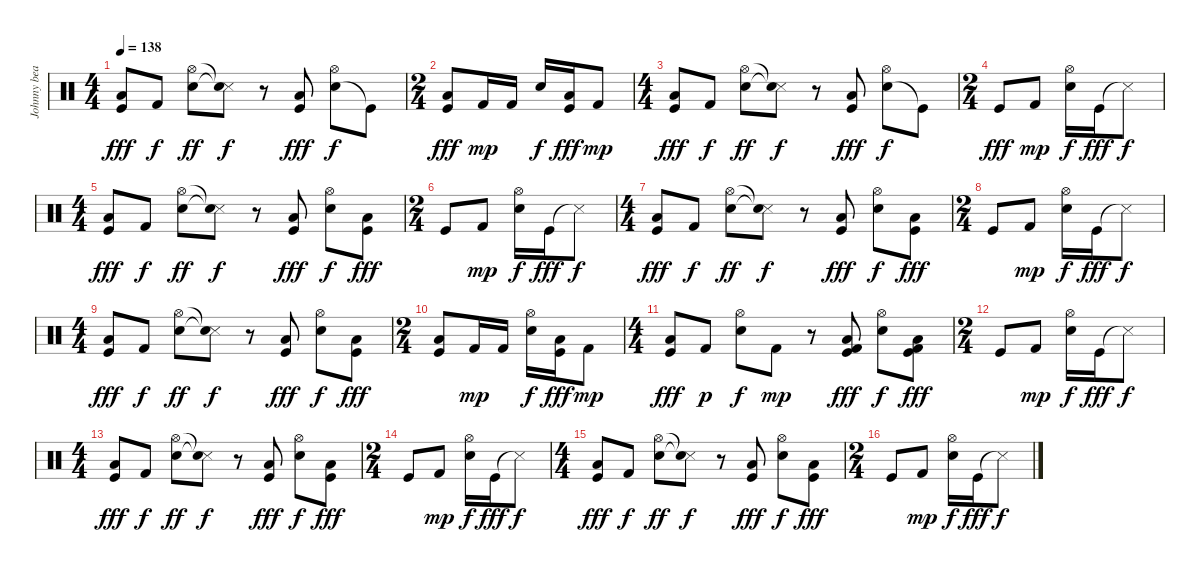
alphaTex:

\track ("Johnny beat" "Johnny bea") {instrument percussion}
\staff {score}
\articulation defaults
\ts (4 4)
\tempo 138
\clef neutral
\ks c
("Low Tom (hit)" "Kick (hit)").8{dy fff} "Kick (hit) 2".8{dy f} ("Electric Snare (hit)" "Hi-Hat (open)").8{dy ff} ("Snare (side stick) 3"{t} "Snare (hit)"{t}).8{dy f} r.8 ("Low Tom (hit)" "Kick (hit)").8{dy fff} ("Electric Snare (hit)" "Hi-Hat (open)").8{dy f} "Kick (hit)"{t}.8 |
\ts (2 4)
("Low Tom (hit)" "Kick (hit)").8{dy fff} "Kick (hit) 2".16{dy mp} "Kick (hit) 2".16 "Electric Snare (hit)".16{dy f} ("Low Tom (hit)" "Kick (hit)").16{dy fff} "Kick (hit) 2".8{dy mp} |
\ts (4 4)
("Low Tom (hit)" "Kick (hit)").8{dy fff} "Kick (hit) 2".8{dy f} ("Electric Snare (hit)" "Hi-Hat (open)").8{dy ff} ("Snare (side stick) 3"{t} "Snare (hit)"{t}).8{dy f} r.8 ("Low Tom (hit)" "Kick (hit)").8{dy fff} ("Electric Snare (hit)" "Hi-Hat (open)").8{dy f} "Kick (hit)"{t}.8 |
\ts (2 4)
"Kick (hit)".8{dy fff} "Kick (hit) 2".8{dy mp} ("Electric Snare (hit)" "Hi-Hat (open)").16{dy f} "Kick (hit)".16{dy fff} "Snare (side stick) 3"{t}.8{dy f} |
\ts (4 4)
("Low Tom (hit)" "Kick (hit)").8{dy fff} "Kick (hit) 2".8{dy f} ("Electric Snare (hit)" "Hi-Hat (open)").8{dy ff} ("Snare (side stick) 3"{t} "Snare (hit)"{t}).8{dy f} r.8 ("Low Tom (hit)" "Kick (hit)").8{dy fff} ("Electric Snare (hit)" "Hi-Hat (open)").8{dy f} ("Low Tom (hit)" "Kick (hit)").8{dy fff} |
\ts (2 4)
"Kick (hit)".8 "Kick (hit) 2".8{dy mp} ("Electric Snare (hit)" "Hi-Hat (open)").16{dy f} "Kick (hit)".16{dy fff} "Snare (side stick) 3"{t}.8{dy f} |
\ts (4 4)
("Low Tom (hit)" "Kick (hit)").8{dy fff} "Kick (hit) 2".8{dy f} ("Electric Snare (hit)" "Hi-Hat (open)").8{dy ff} ("Snare (side stick) 3"{t} "Snare (hit)"{t}).8{dy f} r.8 ("Low Tom (hit)" "Kick (hit)").8{dy fff} ("Electric Snare (hit)" "Hi-Hat (open)").8{dy f} ("Low Tom (hit)" "Kick (hit)").8{dy fff} |
\ts (2 4)
"Kick (hit)".8 "Kick (hit) 2".8{dy mp} ("Electric Snare (hit)" "Hi-Hat (open)").16{dy f} "Kick (hit)".16{dy fff} "Snare (side stick) 3"{t}.8{dy f} |
\ts (4 4)
("Low Tom (hit)" "Kick (hit)").8{dy fff} "Kick (hit) 2".8{dy f} ("Electric Snare (hit)" "Hi-Hat (open)").8{dy ff} ("Snare (side stick) 3"{t} "Snare (hit)"{t}).8{dy f} r.8 ("Low Tom (hit)" "Kick (hit)").8{dy fff} ("Electric Snare (hit)" "Hi-Hat (open)").8{dy f} ("Low Tom (hit)" "Kick (hit)").8{dy fff} |
\ts (2 4)
("Low Tom (hit)" "Kick (hit)").8 "Kick (hit) 2".16{dy mp} "Kick (hit) 2".16 ("Electric Snare (hit)" "Hi-Hat (open)").16{dy f} ("Low Tom (hit)" "Kick (hit)").16{dy fff} "Kick (hit) 2".8{dy mp} |
\ts (4 4)
("Low Tom (hit)" "Kick (hit)").8{dy fff} "Kick (hit) 2".8{dy p} ("Electric Snare (hit)" "Hi-Hat (open)").8{dy f} "Kick (hit) 2".8{dy mp} r.8 ("Kick (hit) 2" "Low Tom (hit)" "Kick (hit)").8{dy fff} ("Electric Snare (hit)" "Hi-Hat (open)").8{dy f} ("Kick (hit) 2" "Low Tom (hit)" "Kick (hit)").8{dy fff} |
\ts (2 4)
"Kick (hit)".8 "Kick (hit) 2".8{dy mp} ("Electric Snare (hit)" "Hi-Hat (open)").16{dy f} "Kick (hit)".16{dy fff} "Snare (side stick) 3"{t}.8{dy f} |
\ts (4 4)
("Low Tom (hit)" "Kick (hit)").8{dy fff} "Kick (hit) 2".8{dy f} ("Electric Snare (hit)" "Hi-Hat (open)").8{dy ff} ("Snare (side stick) 3"{t} "Snare (hit)"{t}).8{dy f} r.8 ("Low Tom (hit)" "Kick (hit)").8{dy fff} ("Electric Snare (hit)" "Hi-Hat (open)").8{dy f} ("Low Tom (hit)" "Kick (hit)").8{dy fff} |
\ts (2 4)
"Kick (hit)".8 "Kick (hit) 2".8{dy mp} ("Electric Snare (hit)" "Hi-Hat (open)").16{dy f} "Kick (hit)".16{dy fff} "Snare (side stick) 3"{t}.8{dy f} |
\ts (4 4)
("Low Tom (hit)" "Kick (hit)").8{dy fff} "Kick (hit) 2".8{dy f} ("Electric Snare (hit)" "Hi-Hat (open)").8{dy ff} ("Snare (side stick) 3"{t} "Snare (hit)"{t}).8{dy f} r.8 ("Low Tom (hit)" "Kick (hit)").8{dy fff} ("Electric Snare (hit)" "Hi-Hat (open)").8{dy f} ("Low Tom (hit)" "Kick (hit)").8{dy fff} |
\ts (2 4)
"Kick (hit)".8 "Kick (hit) 2".8{dy mp} ("Electric Snare (hit)" "Hi-Hat (open)").16{dy f} "Kick (hit)".16{dy fff} "Snare (side stick) 3"{t}.8{dy f}
